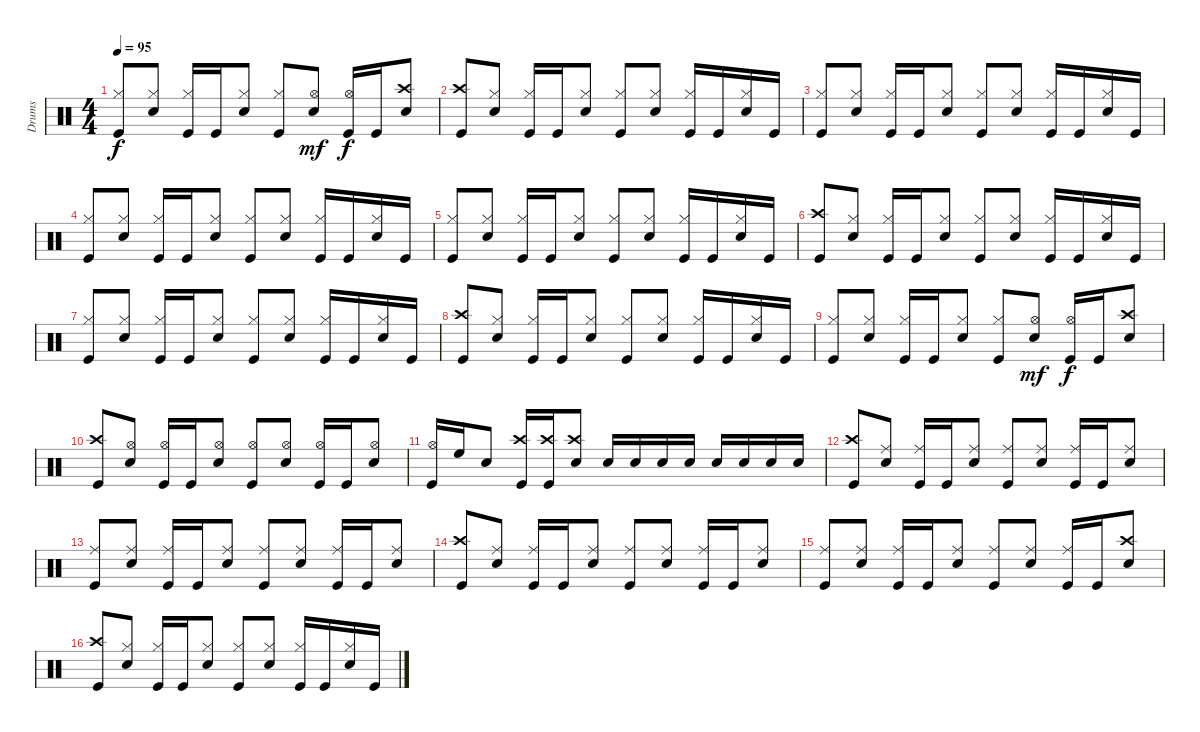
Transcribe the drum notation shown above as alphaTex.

\track ("Drums" "Drums") {instrument percussion}
\staff {score}
\articulation defaults
\ts (4 4)
\tempo 95
\clef neutral
\ks c
("Kick (hit)" "Hi-Hat (closed)").8{dy f beam Up} ("Snare (hit) 2" "Hi-Hat (closed)").8{beam Up} ("Kick (hit)" "Hi-Hat (closed)").16{beam Up} "Kick (hit)".16{beam Up} ("Snare (hit) 2" "Hi-Hat (closed)").8{beam Up} ("Kick (hit)" "Hi-Hat (closed)").8{beam Up} ("Snare (hit) 2" "Hi-Hat (open)").8{dy mf beam Up} ("Kick (hit)" "Hi-Hat (open)").16{dy f beam Up} "Kick (hit)".16{beam Up} ("Snare (hit) 2" "Crash high (hit)").8{beam Up} |
("Kick (hit)" "Crash high (hit)").8{beam Up} ("Snare (hit) 2" "Hi-Hat (closed)").8{beam Up} ("Kick (hit)" "Hi-Hat (closed)").16{beam Up} "Kick (hit)".16{beam Up} ("Snare (hit) 2" "Hi-Hat (closed)").8{beam Up} ("Kick (hit)" "Hi-Hat (closed)").8{beam Up} ("Snare (hit) 2" "Hi-Hat (closed)").8{beam Up} ("Kick (hit)" "Hi-Hat (closed)").16{beam Up} "Kick (hit)".16{beam Up} ("Snare (hit) 2" "Hi-Hat (closed)").16{beam Up} "Kick (hit)".16{beam Up} |
("Kick (hit)" "Hi-Hat (closed)").8{beam Up} ("Snare (hit) 2" "Hi-Hat (closed)").8{beam Up} ("Kick (hit)" "Hi-Hat (closed)").16{beam Up} "Kick (hit)".16{beam Up} ("Snare (hit) 2" "Hi-Hat (closed)").8{beam Up} ("Kick (hit)" "Hi-Hat (closed)").8{beam Up} ("Snare (hit) 2" "Hi-Hat (closed)").8{beam Up} ("Kick (hit)" "Hi-Hat (closed)").16{beam Up} "Kick (hit)".16{beam Up} ("Snare (hit) 2" "Hi-Hat (closed)").16{beam Up} "Kick (hit)".16{beam Up} |
("Kick (hit)" "Hi-Hat (closed)").8{beam Up} ("Snare (hit) 2" "Hi-Hat (closed)").8{beam Up} ("Kick (hit)" "Hi-Hat (closed)").16{beam Up} "Kick (hit)".16{beam Up} ("Snare (hit) 2" "Hi-Hat (closed)").8{beam Up} ("Kick (hit)" "Hi-Hat (closed)").8{beam Up} ("Snare (hit) 2" "Hi-Hat (closed)").8{beam Up} ("Kick (hit)" "Hi-Hat (closed)").16{beam Up} "Kick (hit)".16{beam Up} ("Snare (hit) 2" "Hi-Hat (closed)").16{beam Up} "Kick (hit)".16{beam Up} |
("Kick (hit)" "Hi-Hat (closed)").8{beam Up} ("Snare (hit) 2" "Hi-Hat (closed)").8{beam Up} ("Kick (hit)" "Hi-Hat (closed)").16{beam Up} "Kick (hit)".16{beam Up} ("Snare (hit) 2" "Hi-Hat (closed)").8{beam Up} ("Kick (hit)" "Hi-Hat (closed)").8{beam Up} ("Snare (hit) 2" "Hi-Hat (closed)").8{beam Up} ("Kick (hit)" "Hi-Hat (closed)").16{beam Up} "Kick (hit)".16{beam Up} ("Snare (hit) 2" "Hi-Hat (closed)").16{beam Up} "Kick (hit)".16{beam Up} |
("Kick (hit)" "Crash high (hit)").8{beam Up} ("Snare (hit) 2" "Hi-Hat (closed)").8{beam Up} ("Kick (hit)" "Hi-Hat (closed)").16{beam Up} "Kick (hit)".16{beam Up} ("Snare (hit) 2" "Hi-Hat (closed)").8{beam Up} ("Kick (hit)" "Hi-Hat (closed)").8{beam Up} ("Snare (hit) 2" "Hi-Hat (closed)").8{beam Up} ("Kick (hit)" "Hi-Hat (closed)").16{beam Up} "Kick (hit)".16{beam Up} ("Snare (hit) 2" "Hi-Hat (closed)").16{beam Up} "Kick (hit)".16{beam Up} |
("Kick (hit)" "Hi-Hat (closed)").8{beam Up} ("Snare (hit) 2" "Hi-Hat (closed)").8{beam Up} ("Kick (hit)" "Hi-Hat (closed)").16{beam Up} "Kick (hit)".16{beam Up} ("Snare (hit) 2" "Hi-Hat (closed)").8{beam Up} ("Kick (hit)" "Hi-Hat (closed)").8{beam Up} ("Snare (hit) 2" "Hi-Hat (closed)").8{beam Up} ("Kick (hit)" "Hi-Hat (closed)").16{beam Up} "Kick (hit)".16{beam Up} ("Snare (hit) 2" "Hi-Hat (closed)").16{beam Up} "Kick (hit)".16{beam Up} |
("Kick (hit)" "Crash high (hit)").8{beam Up} ("Snare (hit) 2" "Hi-Hat (closed)").8{beam Up} ("Kick (hit)" "Hi-Hat (closed)").16{beam Up} "Kick (hit)".16{beam Up} ("Snare (hit) 2" "Hi-Hat (closed)").8{beam Up} ("Kick (hit)" "Hi-Hat (closed)").8{beam Up} ("Snare (hit) 2" "Hi-Hat (closed)").8{beam Up} ("Kick (hit)" "Hi-Hat (closed)").16{beam Up} "Kick (hit)".16{beam Up} ("Snare (hit) 2" "Hi-Hat (closed)").16{beam Up} "Kick (hit)".16{beam Up} |
("Kick (hit)" "Hi-Hat (closed)").8{beam Up} ("Snare (hit) 2" "Hi-Hat (closed)").8{beam Up} ("Kick (hit)" "Hi-Hat (closed)").16{beam Up} "Kick (hit)".16{beam Up} ("Snare (hit) 2" "Hi-Hat (closed)").8{beam Up} ("Kick (hit)" "Hi-Hat (closed)").8{beam Up} ("Snare (hit) 2" "Hi-Hat (open)").8{dy mf beam Up} ("Kick (hit)" "Hi-Hat (open)").16{dy f beam Up} "Kick (hit)".16{beam Up} ("Snare (hit) 2" "Crash high (hit)").8{beam Up} |
("Kick (hit)" "Crash high (hit)").8{beam Up} ("Snare (hit) 2" "Hi-Hat (open)").8{beam Up} ("Kick (hit)" "Hi-Hat (open)").16{beam Up} "Kick (hit)".16{beam Up} ("Snare (hit) 2" "Hi-Hat (open)").8{beam Up} ("Kick (hit)" "Hi-Hat (open)").8{beam Up} ("Snare (hit) 2" "Hi-Hat (open)").8{beam Up} ("Kick (hit)" "Hi-Hat (open)").16{beam Up} "Kick (hit)".16{beam Up} ("Snare (hit) 2" "Hi-Hat (open)").8{beam Up} |
("Kick (hit)" "Hi-Hat (open)").16{beam Up} "High Floor Tom (hit)".16{beam Up} "Snare (hit) 2".8{beam Up} ("Kick (hit)" "Crash high (hit)").16{beam Up} ("Kick (hit)" "Crash high (hit)").16{beam Up} ("Snare (hit) 2" "Crash high (hit)").8{beam Up} "Snare (hit) 2".16{beam Up} "Snare (hit) 2".16{beam Up} "Snare (hit) 2".16{beam Up} "Snare (hit) 2".16{beam Up} "Snare (hit) 2".16{beam Up} "Snare (hit) 2".16{beam Up} "Snare (hit) 2".16{beam Up} "Snare (hit) 2".16{beam Up} |
("Kick (hit)" "Crash high (hit)").8{beam Up} ("Snare (hit) 2" "Ride (middle)").8{beam Up} ("Kick (hit)" "Ride (middle)").16{beam Up} "Kick (hit)".16{beam Up} ("Snare (hit) 2" "Ride (middle)").8{beam Up} ("Kick (hit)" "Ride (middle)").8{beam Up} ("Snare (hit) 2" "Ride (middle)").8{beam Up} ("Kick (hit)" "Ride (middle)").16{beam Up} "Kick (hit)".16{beam Up} ("Snare (hit) 2" "Ride (middle)").8{beam Up} |
("Kick (hit)" "Ride (middle)").8{beam Up} ("Snare (hit) 2" "Ride (middle)").8{beam Up} ("Kick (hit)" "Ride (middle)").16{beam Up} "Kick (hit)".16{beam Up} ("Snare (hit) 2" "Ride (middle)").8{beam Up} ("Kick (hit)" "Ride (middle)").8{beam Up} ("Snare (hit) 2" "Ride (middle)").8{beam Up} ("Kick (hit)" "Ride (middle)").16{beam Up} "Kick (hit)".16{beam Up} ("Snare (hit) 2" "Ride (middle)").8{beam Up} |
("Kick (hit)" "Crash high (hit)").8{beam Up} ("Snare (hit) 2" "Ride (middle)").8{beam Up} ("Kick (hit)" "Ride (middle)").16{beam Up} "Kick (hit)".16{beam Up} ("Snare (hit) 2" "Ride (middle)").8{beam Up} ("Kick (hit)" "Ride (middle)").8{beam Up} ("Snare (hit) 2" "Ride (middle)").8{beam Up} ("Kick (hit)" "Ride (middle)").16{beam Up} "Kick (hit)".16{beam Up} ("Snare (hit) 2" "Ride (middle)").8{beam Up} |
("Kick (hit)" "Ride (middle)").8{beam Up} ("Snare (hit) 2" "Ride (middle)").8{beam Up} ("Kick (hit)" "Ride (middle)").16{beam Up} "Kick (hit)".16{beam Up} ("Snare (hit) 2" "Ride (middle)").8{beam Up} ("Kick (hit)" "Ride (middle)").8{beam Up} ("Snare (hit) 2" "Ride (middle)").8{beam Up} ("Kick (hit)" "Ride (middle)").16{beam Up} "Kick (hit)".16{beam Up} ("Snare (hit) 2" "Crash high (hit)").8{beam Up} |
("Kick (hit)" "Crash high (hit)").8{beam Up} ("Snare (hit) 2" "Hi-Hat (closed)").8{beam Up} ("Kick (hit)" "Hi-Hat (closed)").16{beam Up} "Kick (hit)".16{beam Up} ("Snare (hit) 2" "Hi-Hat (closed)").8{beam Up} ("Kick (hit)" "Hi-Hat (closed)").8{beam Up} ("Snare (hit) 2" "Hi-Hat (closed)").8{beam Up} ("Kick (hit)" "Hi-Hat (closed)").16{beam Up} "Kick (hit)".16{beam Up} ("Snare (hit) 2" "Hi-Hat (closed)").16{beam Up} "Kick (hit)".16{beam Up}
